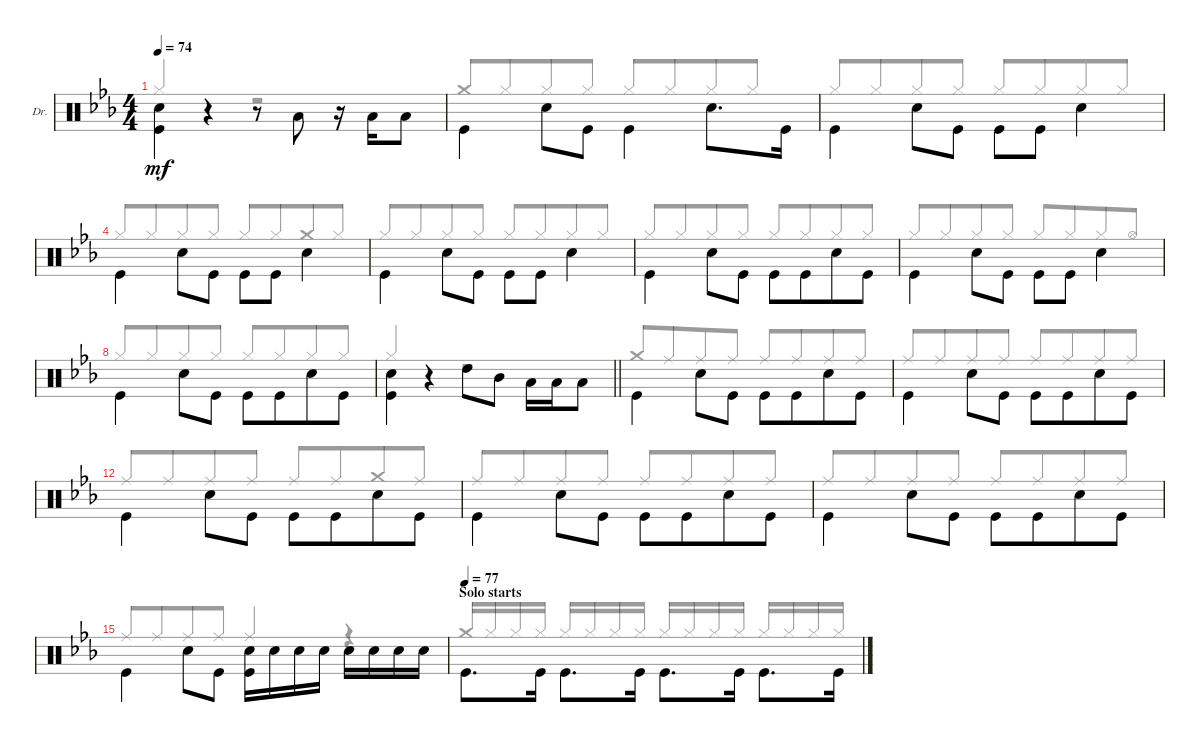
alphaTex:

\bracketExtendMode groupsimilarinstruments
\firstSystemTrackNameOrientation horizontal
\otherSystemsTrackNameOrientation horizontal
\defaultBarNumberDisplay FirstOfSystem
\track ("Drums" "Dr.") {multiBarRest instrument percussion}
\staff {score}
\articulation defaults
\voice
\ts (4 4)
\tempo 74
\clef neutral
\ks eb
("Kick (hit)" "Snare (hit) 2").4{dy mf beam invert} r.4{beam invert} r.8 "Low Tom (hit)".8{beam invert} r.16{beam invert} "Low Tom (hit)".16{beam invert} "Low Tom (hit)".8 |
"Kick (hit)".4{beam invert} "Snare (hit) 2".8{beam invert} "Kick (hit)".8 "Kick (hit)".4{beam invert} "Snare (hit) 2".8{d beam invert} "Kick (hit)".16 |
"Kick (hit)".4{beam invert} "Snare (hit) 2".8{beam invert} "Kick (hit)".8 "Kick (hit)".8{beam invert} "Kick (hit)".8 "Snare (hit) 2".4{beam invert} |
"Kick (hit)".4{beam invert} "Snare (hit) 2".8{beam invert} "Kick (hit)".8 "Kick (hit)".8{beam invert} "Kick (hit)".8 "Snare (hit) 2".4{beam invert} |
"Kick (hit)".4{beam invert} "Snare (hit) 2".8{beam invert} "Kick (hit)".8 "Kick (hit)".8{beam invert} "Kick (hit)".8 "Snare (hit) 2".4{beam invert} |
"Kick (hit)".4{beam invert} "Snare (hit) 2".8 "Kick (hit)".8{beam invert} "Kick (hit)".8{beam invert} "Kick (hit)".8{beam merge} "Snare (hit) 2".8 "Kick (hit)".8 |
"Kick (hit)".4{beam invert} "Snare (hit) 2".8{beam invert} "Kick (hit)".8 "Kick (hit)".8{beam invert} "Kick (hit)".8 "Snare (hit) 2".4{beam invert} |
"Kick (hit)".4{beam invert} "Snare (hit) 2".8 "Kick (hit)".8{beam invert} "Kick (hit)".8{beam invert} "Kick (hit)".8{beam merge} "Snare (hit) 2".8 "Kick (hit)".8 |
\barLineRight lightlight
("Snare (hit) 2" "Kick (hit)").4{beam invert} r.4{beam invert} "High Tom (hit)".8{beam invert} "Mid Tom (hit)".8 "Low Tom (hit)".16 "Low Tom (hit)".16{beam invert} "Low Tom (hit)".8 |
"Kick (hit)".4{beam invert} "Snare (hit) 2".8{beam invert} "Kick (hit)".8 "Kick (hit)".8{beam invert} "Kick (hit)".8{beam merge} "Snare (hit) 2".8 "Kick (hit)".8 |
"Kick (hit)".4{beam invert} "Snare (hit) 2".8{beam invert} "Kick (hit)".8 "Kick (hit)".8{beam invert} "Kick (hit)".8{beam merge} "Snare (hit) 2".8 "Kick (hit)".8 |
"Kick (hit)".4{beam invert} "Snare (hit) 2".8{beam invert} "Kick (hit)".8 "Kick (hit)".8{beam invert} "Kick (hit)".8{beam merge} "Snare (hit) 2".8 "Kick (hit)".8 |
"Kick (hit)".4{beam invert} "Snare (hit) 2".8 "Kick (hit)".8{beam invert} "Kick (hit)".8{beam invert} "Kick (hit)".8{beam merge} "Snare (hit) 2".8 "Kick (hit)".8 |
"Kick (hit)".4{beam invert} "Snare (hit) 2".8{beam invert} "Kick (hit)".8 "Kick (hit)".8{beam invert} "Kick (hit)".8{beam merge} "Snare (hit) 2".8 "Kick (hit)".8 |
"Kick (hit)".4{beam invert} "Snare (hit) 2".8{beam invert} "Kick (hit)".8 ("Kick (hit)" "Snare (hit) 2").16{beam invert} "Snare (hit) 2".16{beam invert} "Snare (hit) 2".16 "Snare (hit) 2".16{beam invert} "Snare (hit) 2".16{beam invert} "Snare (hit) 2".16 "Snare (hit) 2".16 "Snare (hit) 2".16 |
\section ("" "Solo starts")
\tempo (77)
"Kick (hit)".8{d} "Kick (hit)".16{beam invert} "Kick (hit)".8{d beam invert} "Kick (hit)".16 "Kick (hit)".8{d beam invert} "Kick (hit)".16 "Kick (hit)".8{d beam invert} "Kick (hit)".16
\voice
\clef neutral
\ottava regular
\simile none
\ks eb "Hi-Hat (closed)".4{dy mf beam invert}
r.4 r.2 |
"Crash medium (hit)".8{beam invert} "Hi-Hat (closed)".8{beam merge} "Hi-Hat (closed)".8 "Hi-Hat (closed)".8 "Hi-Hat (closed)".8{beam invert} "Hi-Hat (closed)".8{beam merge} "Hi-Hat (closed)".8{beam merge} "Hi-Hat (closed)".8 |
"Hi-Hat (closed)".8{beam invert} "Hi-Hat (closed)".8{beam merge} "Hi-Hat (closed)".8 "Hi-Hat (closed)".8 "Hi-Hat (closed)".8{beam invert} "Hi-Hat (closed)".8{beam merge} "Hi-Hat (closed)".8 "Hi-Hat (closed)".8 |
"Hi-Hat (closed)".8{beam invert} "Hi-Hat (closed)".8{beam merge} "Hi-Hat (closed)".8{beam merge} "Hi-Hat (closed)".8 "Hi-Hat (closed)".8{beam invert} "Hi-Hat (closed)".8{beam merge} "Crash medium (hit)".8 "Hi-Hat (closed)".8 |
"Hi-Hat (closed)".8{beam invert} "Hi-Hat (closed)".8{beam merge} "Hi-Hat (closed)".8 "Hi-Hat (closed)".8 "Hi-Hat (closed)".8{beam invert} "Hi-Hat (closed)".8{beam merge} "Hi-Hat (closed)".8{beam merge} "Hi-Hat (closed)".8 |
"Hi-Hat (closed)".8{beam invert} "Hi-Hat (closed)".8{beam merge} "Hi-Hat (closed)".8{beam merge} "Hi-Hat (closed)".8 "Hi-Hat (closed)".8{beam invert} "Hi-Hat (closed)".8{beam merge} "Hi-Hat (closed)".8 "Hi-Hat (closed)".8 |
"Hi-Hat (closed)".8{beam invert} "Hi-Hat (closed)".8{beam merge} "Hi-Hat (closed)".8 "Hi-Hat (closed)".8 "Hi-Hat (closed)".8{beam invert} "Hi-Hat (closed)".8{beam merge} "Hi-Hat (closed)".8 "Hi-Hat (open)".8 |
"Hi-Hat (closed)".8{beam invert} "Hi-Hat (closed)".8{beam merge} "Hi-Hat (closed)".8 "Hi-Hat (closed)".8 "Hi-Hat (closed)".8{beam invert beam merge} "Hi-Hat (closed)".8{beam merge} "Hi-Hat (closed)".8 "Hi-Hat (closed)".8 |
\barLineRight lightlight "Hi-Hat (closed)".4{beam invert}
r.4 r.2 |
"Crash medium (hit)".8{beam invert} "Ride (middle)".8{beam merge} "Ride (middle)".8 "Ride (middle)".8 "Ride (middle)".8{beam invert} "Ride (middle)".8{beam merge} "Ride (middle)".8 "Ride (middle)".8 |
"Ride (middle)".8{beam invert} "Ride (middle)".8{beam merge} "Ride (middle)".8 "Ride (middle)".8 "Ride (middle)".8{beam invert} "Ride (middle)".8{beam merge} "Ride (middle)".8 "Ride (middle)".8 |
"Ride (middle)".8{beam invert beam merge} "Ride (middle)".8{beam merge} "Ride (middle)".8 "Ride (middle)".8 "Ride (middle)".8{beam invert} "Ride (middle)".8{beam merge} "Crash medium (hit)".8{beam merge} "Ride (middle)".8 |
"Ride (middle)".8{beam invert} "Ride (middle)".8{beam merge} "Ride (middle)".8 "Ride (middle)".8 "Ride (middle)".8{beam invert} "Ride (middle)".8{beam merge} "Ride (middle)".8 "Ride (middle)".8 |
"Ride (middle)".8{beam invert} "Ride (middle)".8{beam merge} "Ride (middle)".8 "Ride (middle)".8 "Ride (middle)".8{beam invert} "Ride (middle)".8{beam merge} "Ride (middle)".8 "Ride (middle)".8 |
"Ride (middle)".8{beam invert} "Ride (middle)".8{beam merge} "Ride (middle)".8 "Ride (middle)".8 "Ride (middle)".4{beam invert} r.4 |
"Crash medium (hit)".16{beam invert} "Hi-Hat (closed)".16 "Hi-Hat (closed)".16 "Hi-Hat (closed)".16 "Hi-Hat (closed)".16{beam invert} "Hi-Hat (closed)".16 "Hi-Hat (closed)".16 "Hi-Hat (closed)".16 "Hi-Hat (closed)".16{beam invert} "Hi-Hat (closed)".16 "Hi-Hat (closed)".16 "Hi-Hat (closed)".16 "Hi-Hat (closed)".16{beam invert} "Hi-Hat (closed)".16 "Hi-Hat (closed)".16 "Hi-Hat (closed)".16
